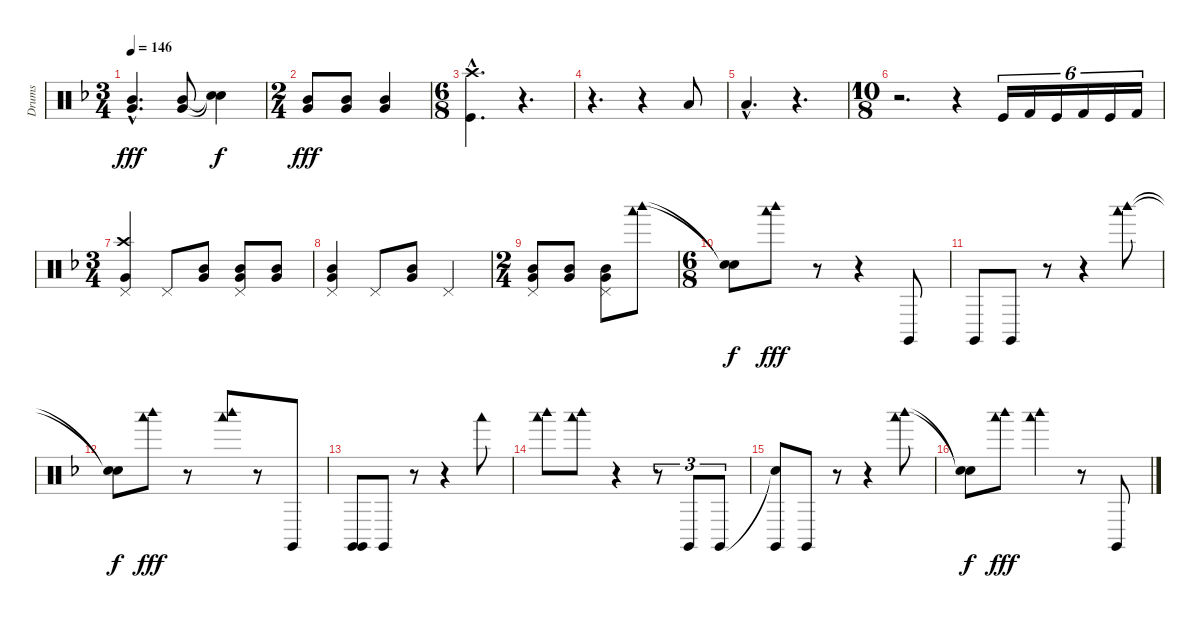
\track ("Drums" "Drums") {instrument percussion}
\staff {score}
\articulation defaults
\ts (3 4)
\tempo 146
\clef neutral
\ks f
("Mid Tom (hit)"{hac} "Very Low Tom (hit)"{hac}).4{d dy fff} ("Mid Tom (hit)" "Very Low Tom (hit)").8 ("Snare (hit)"{t} "Snare (hit)"{t}).4{dy f} |
\ts (2 4)
("Mid Tom (hit)" "Very Low Tom (hit)").8{dy fff} ("Mid Tom (hit)" "Very Low Tom (hit)").8 ("Mid Tom (hit)" "Very Low Tom (hit)").4 |
\ts (6 8)
("Crash high (hit)"{hac} "Kick (hit)"{hac}).4{d} r.4{d} |
r.4{d} r.4 "Low Tom (hit)".8 |
"Low Tom (hit)"{hac}.4{d} r.4{d} |
\ts (10 8)
r.2{d} r.4 "Kick (hit)".16{tu (6 4)} "Kick (hit) 2".16{tu (6 4)} "Kick (hit)".16{tu (6 4)} "Kick (hit) 2".16{tu (6 4)} "Kick (hit)".16{tu (6 4)} "Kick (hit) 2".16{tu (6 4)} |
\ts (3 4)
("Pedal Hi-Hat (hit)" "Crash high (hit)" "Very Low Tom (hit)").4 "Pedal Hi-Hat (hit)".8 ("Mid Tom (hit)" "Very Low Tom (hit)").8 ("Pedal Hi-Hat (hit)" "Mid Tom (hit)" "Very Low Tom (hit)").8 ("Mid Tom (hit)" "Very Low Tom (hit)").8 |
("Pedal Hi-Hat (hit)" "Mid Tom (hit)" "Very Low Tom (hit)").4 "Pedal Hi-Hat (hit)".8 ("Mid Tom (hit)" "Very Low Tom (hit)").8 "Pedal Hi-Hat (hit)".4 |
\ts (2 4)
("Pedal Hi-Hat (hit)" "Mid Tom (hit)" "Very Low Tom (hit)").8 ("Mid Tom (hit)" "Very Low Tom (hit)").8 ("Pedal Hi-Hat (hit)" "Mid Tom (hit)" "Very Low Tom (hit)").8 ("Woodblock high (hit)" "Woodblock low (hit)").8 |
\ts (6 8)
("Snare (hit)"{t} "Snare (hit)"{t}).8{dy f} ("Woodblock high (hit)" "Woodblock low (hit)").8{dy fff} r.8 r.4 "Claves (hit)".8 |
"Claves (hit)".8 "Claves (hit)".8 r.8 r.4 ("Woodblock high (hit)" "Woodblock low (hit)").8 |
("Snare (hit)"{t} "Snare (hit)"{t}).8{dy f} ("Woodblock high (hit)" "Woodblock low (hit)").8{dy fff} r.8 ("Woodblock high (hit)" "Woodblock low (hit)").8 r.8 "Claves (hit)".8 |
("Claves (hit)" "Claves (hit)").8 "Claves (hit)".8 r.8 r.4 "Woodblock low (hit)".8 |
("Woodblock high (hit)" "Woodblock low (hit)").8 ("Woodblock high (hit)" "Woodblock low (hit)").8 r.4 r.8{tu (3 2)} "Claves (hit)".8{tu (3 2)} "Claves (hit)".8{tu (3 2)} |
("Snare (hit)"{t} "Claves (hit)").8 "Claves (hit)".8 r.8 r.4 ("Woodblock high (hit)" "Woodblock low (hit)").8 |
("Snare (hit)"{t} "Snare (hit)"{t}).8{dy f} ("Woodblock high (hit)" "Woodblock low (hit)").8{dy fff} ("Woodblock high (hit)" "Woodblock low (hit)").4 r.8 "Claves (hit)".8
